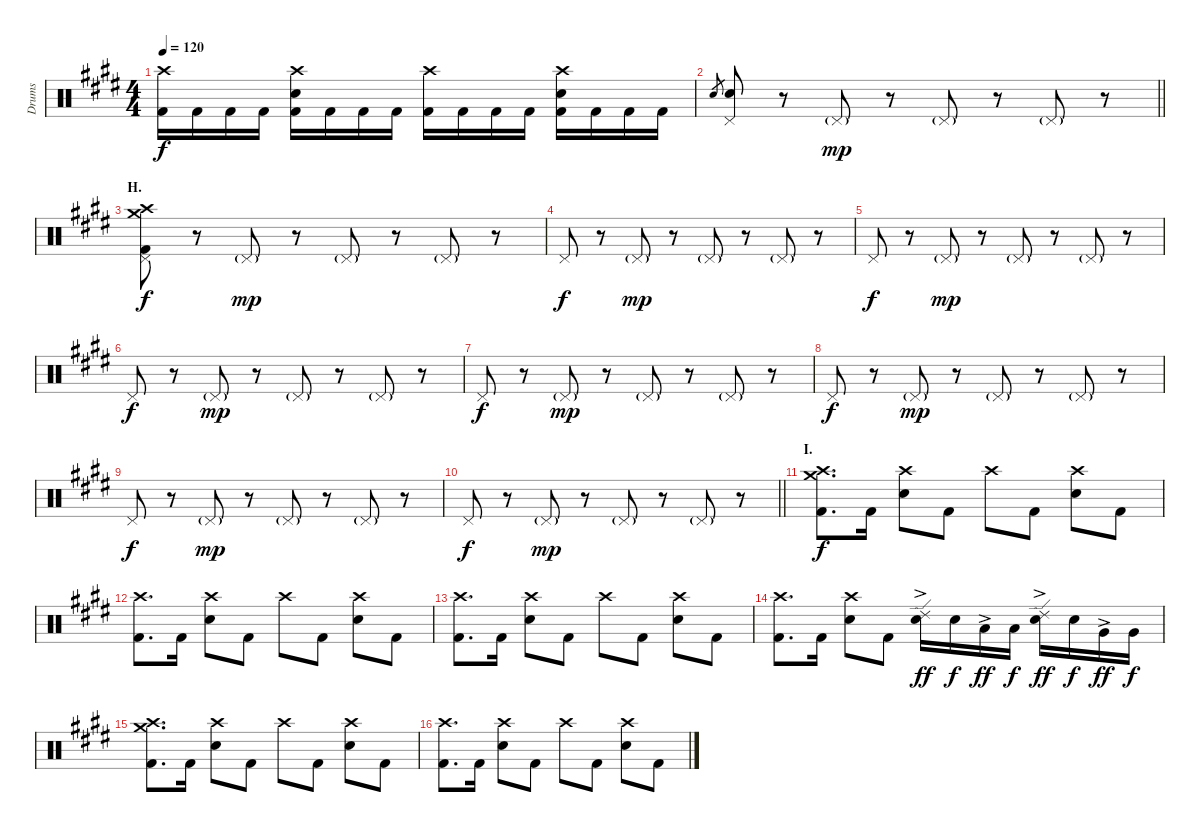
\track ("Drums" "Drums") {instrument percussion}
\staff {score}
\articulation defaults
\ts (4 4)
\tempo 120
\clef neutral
\ks e
("Crash high (hit)" "Kick (hit) 2").16{dy f} "Kick (hit) 2".16 "Kick (hit) 2".16 "Kick (hit) 2".16 ("Crash high (hit)" "Electric Snare (hit)" "Kick (hit) 2").16 "Kick (hit) 2".16 "Kick (hit) 2".16 "Kick (hit) 2".16 ("Crash high (hit)" "Kick (hit) 2").16 "Kick (hit) 2".16 "Kick (hit) 2".16 "Kick (hit) 2".16 ("Crash high (hit)" "Electric Snare (hit)" "Kick (hit) 2").16 "Kick (hit) 2".16 "Kick (hit) 2".16 "Kick (hit) 2".16 |
\barLineRight lightlight "Electric Snare (hit)".8{gr}
("Pedal Hi-Hat (hit)" "Electric Snare (hit)").8 r.8 "Pedal Hi-Hat (hit)"{g}.8{dy mp} r.8 "Pedal Hi-Hat (hit)"{g}.8 r.8 "Pedal Hi-Hat (hit)"{g}.8 r.8 |
\section ("" "H.")
("Crash medium (hit)" "Crash high (hit)" "Pedal Hi-Hat (hit)" "Kick (hit) 2").8{dy f} r.8 "Pedal Hi-Hat (hit)"{g}.8{dy mp} r.8 "Pedal Hi-Hat (hit)"{g}.8 r.8 "Pedal Hi-Hat (hit)"{g}.8 r.8 |
"Pedal Hi-Hat (hit)".8{dy f} r.8 "Pedal Hi-Hat (hit)"{g}.8{dy mp} r.8 "Pedal Hi-Hat (hit)"{g}.8 r.8 "Pedal Hi-Hat (hit)"{g}.8 r.8 |
"Pedal Hi-Hat (hit)".8{dy f} r.8 "Pedal Hi-Hat (hit)"{g}.8{dy mp} r.8 "Pedal Hi-Hat (hit)"{g}.8 r.8 "Pedal Hi-Hat (hit)"{g}.8 r.8 |
"Pedal Hi-Hat (hit)".8{dy f} r.8 "Pedal Hi-Hat (hit)"{g}.8{dy mp} r.8 "Pedal Hi-Hat (hit)"{g}.8 r.8 "Pedal Hi-Hat (hit)"{g}.8 r.8 |
"Pedal Hi-Hat (hit)".8{dy f} r.8 "Pedal Hi-Hat (hit)"{g}.8{dy mp} r.8 "Pedal Hi-Hat (hit)"{g}.8 r.8 "Pedal Hi-Hat (hit)"{g}.8 r.8 |
"Pedal Hi-Hat (hit)".8{dy f} r.8 "Pedal Hi-Hat (hit)"{g}.8{dy mp} r.8 "Pedal Hi-Hat (hit)"{g}.8 r.8 "Pedal Hi-Hat (hit)"{g}.8 r.8 |
"Pedal Hi-Hat (hit)".8{dy f} r.8 "Pedal Hi-Hat (hit)"{g}.8{dy mp} r.8 "Pedal Hi-Hat (hit)"{g}.8 r.8 "Pedal Hi-Hat (hit)"{g}.8 r.8 |
\barLineRight lightlight "Pedal Hi-Hat (hit)".8{dy f}
r.8 "Pedal Hi-Hat (hit)"{g}.8{dy mp} r.8 "Pedal Hi-Hat (hit)"{g}.8 r.8 "Pedal Hi-Hat (hit)"{g}.8 r.8 |
\section ("" "I.")
("Crash medium (hit)" "Crash high (hit)" "Kick (hit) 2").8{d dy f} "Kick (hit) 2".16 ("Crash high (hit)" "Electric Snare (hit)").8 "Kick (hit) 2".8 "Crash high (hit)".8 "Kick (hit) 2".8 ("Crash high (hit)" "Electric Snare (hit)").8 "Kick (hit) 2".8 |
("Crash high (hit)" "Kick (hit) 2").8{d} "Kick (hit) 2".16 ("Crash high (hit)" "Electric Snare (hit)").8 "Kick (hit) 2".8 "Crash high (hit)".8 "Kick (hit) 2".8 ("Crash high (hit)" "Electric Snare (hit)").8 "Kick (hit) 2".8 |
("Crash high (hit)" "Kick (hit) 2").8{d} "Kick (hit) 2".16 ("Crash high (hit)" "Electric Snare (hit)").8 "Kick (hit) 2".8 "Crash high (hit)".8 "Kick (hit) 2".8 ("Crash high (hit)" "Electric Snare (hit)").8 "Kick (hit) 2".8 |
("Crash high (hit)" "Kick (hit) 2").8{d} "Kick (hit) 2".16 ("Crash high (hit)" "Electric Snare (hit)").8 "Kick (hit) 2".8 ("Ride (edge) 2" "Electric Snare (hit)"{ac}).16{dy ff} "Electric Snare (hit)".16{dy f} "Low Tom (hit)"{ac}.16{dy ff} "Low Tom (hit)".16{dy f} ("Ride (edge) 2" "Electric Snare (hit)"{ac}).16{dy ff} "Electric Snare (hit)".16{dy f} "Very Low Tom (hit)"{ac}.16{dy ff} "Very Low Tom (hit)".16{dy f} |
("Crash medium (hit)" "Crash high (hit)" "Kick (hit) 2").8{d} "Kick (hit) 2".16 ("Crash high (hit)" "Electric Snare (hit)").8 "Kick (hit) 2".8 "Crash high (hit)".8 "Kick (hit) 2".8 ("Crash high (hit)" "Electric Snare (hit)").8 "Kick (hit) 2".8 |
("Crash high (hit)" "Kick (hit) 2").8{d} "Kick (hit) 2".16 ("Crash high (hit)" "Electric Snare (hit)").8 "Kick (hit) 2".8 "Crash high (hit)".8 "Kick (hit) 2".8 ("Crash high (hit)" "Electric Snare (hit)").8 "Kick (hit) 2".8
